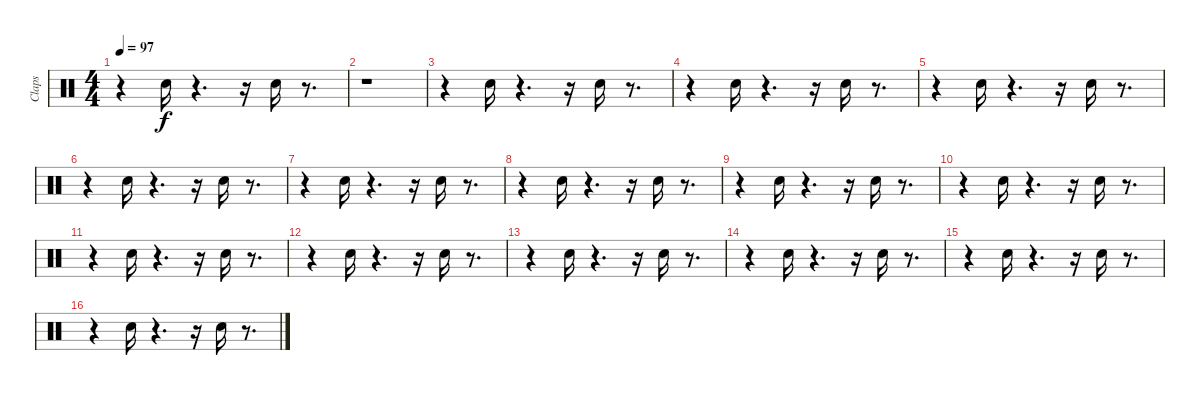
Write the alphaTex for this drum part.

\track ("Claps" "Claps") {instrument percussion}
\staff {score}
\articulation defaults
\ts (4 4)
\tempo 97
\clef neutral
\ks c
r.4{dy f} "Hand Clap (hit)".16 r.4{d} r.16 "Hand Clap (hit)".16 r.8{d} |
r.1 |
r.4 "Hand Clap (hit)".16 r.4{d} r.16 "Hand Clap (hit)".16 r.8{d} |
r.4 "Hand Clap (hit)".16 r.4{d} r.16 "Hand Clap (hit)".16 r.8{d} |
r.4 "Hand Clap (hit)".16 r.4{d} r.16 "Hand Clap (hit)".16 r.8{d} |
r.4 "Hand Clap (hit)".16 r.4{d} r.16 "Hand Clap (hit)".16 r.8{d} |
r.4 "Hand Clap (hit)".16 r.4{d} r.16 "Hand Clap (hit)".16 r.8{d} |
r.4 "Hand Clap (hit)".16 r.4{d} r.16 "Hand Clap (hit)".16 r.8{d} |
r.4 "Hand Clap (hit)".16 r.4{d} r.16 "Hand Clap (hit)".16 r.8{d} |
r.4 "Hand Clap (hit)".16 r.4{d} r.16 "Hand Clap (hit)".16 r.8{d} |
r.4 "Hand Clap (hit)".16 r.4{d} r.16 "Hand Clap (hit)".16 r.8{d} |
r.4 "Hand Clap (hit)".16 r.4{d} r.16 "Hand Clap (hit)".16 r.8{d} |
r.4 "Hand Clap (hit)".16 r.4{d} r.16 "Hand Clap (hit)".16 r.8{d} |
r.4 "Hand Clap (hit)".16 r.4{d} r.16 "Hand Clap (hit)".16 r.8{d} |
r.4 "Hand Clap (hit)".16 r.4{d} r.16 "Hand Clap (hit)".16 r.8{d} |
r.4 "Hand Clap (hit)".16 r.4{d} r.16 "Hand Clap (hit)".16 r.8{d}
